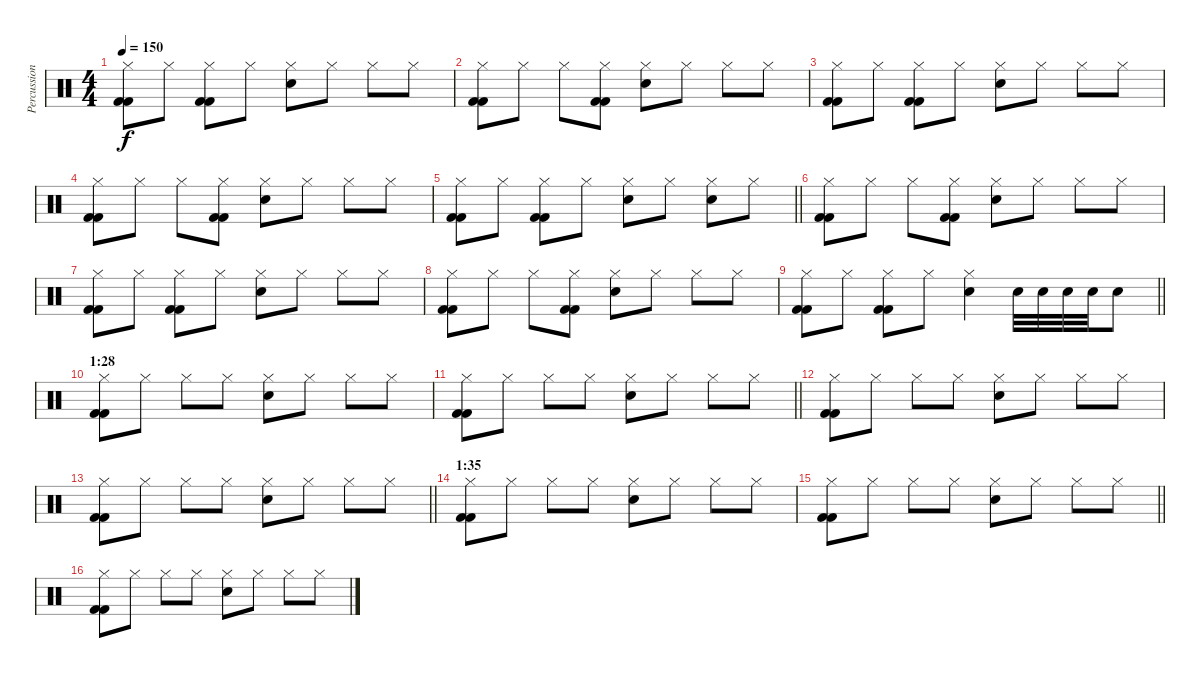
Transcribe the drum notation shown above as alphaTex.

\track ("Percussion" "Percussion") {instrument percussion}
\staff {score}
\articulation defaults
\ts (4 4)
\tempo 150
\clef neutral
\ks c
("Kick (hit) 2" "Kick (hit) 2" "Hi-Hat (closed)").8{dy f} "Hi-Hat (closed)".8 ("Kick (hit) 2" "Kick (hit) 2" "Hi-Hat (closed)").8 "Hi-Hat (closed)".8 ("Electric Snare (hit)" "Hi-Hat (closed)").8 "Hi-Hat (closed)".8 "Hi-Hat (closed)".8 "Hi-Hat (closed)".8 |
("Kick (hit) 2" "Kick (hit) 2" "Hi-Hat (closed)").8 "Hi-Hat (closed)".8 "Hi-Hat (closed)".8 ("Kick (hit) 2" "Kick (hit) 2" "Hi-Hat (closed)").8 ("Electric Snare (hit)" "Hi-Hat (closed)").8 "Hi-Hat (closed)".8 "Hi-Hat (closed)".8 "Hi-Hat (closed)".8 |
("Kick (hit) 2" "Kick (hit) 2" "Hi-Hat (closed)").8 "Hi-Hat (closed)".8 ("Kick (hit) 2" "Kick (hit) 2" "Hi-Hat (closed)").8 "Hi-Hat (closed)".8 ("Electric Snare (hit)" "Hi-Hat (closed)").8 "Hi-Hat (closed)".8 "Hi-Hat (closed)".8 "Hi-Hat (closed)".8 |
("Kick (hit) 2" "Kick (hit) 2" "Hi-Hat (closed)").8 "Hi-Hat (closed)".8 "Hi-Hat (closed)".8 ("Kick (hit) 2" "Kick (hit) 2" "Hi-Hat (closed)").8 ("Electric Snare (hit)" "Hi-Hat (closed)").8 "Hi-Hat (closed)".8 "Hi-Hat (closed)".8 "Hi-Hat (closed)".8 |
\barLineRight lightlight
("Kick (hit) 2" "Kick (hit) 2" "Hi-Hat (closed)").8 "Hi-Hat (closed)".8 ("Kick (hit) 2" "Kick (hit) 2" "Hi-Hat (closed)").8 "Hi-Hat (closed)".8 ("Electric Snare (hit)" "Hi-Hat (closed)").8 "Hi-Hat (closed)".8 ("Electric Snare (hit)" "Hi-Hat (closed)").8 "Hi-Hat (closed)".8 |
("Kick (hit) 2" "Kick (hit) 2" "Hi-Hat (closed)").8 "Hi-Hat (closed)".8 "Hi-Hat (closed)".8 ("Kick (hit) 2" "Kick (hit) 2" "Hi-Hat (closed)").8 ("Electric Snare (hit)" "Hi-Hat (closed)").8 "Hi-Hat (closed)".8 "Hi-Hat (closed)".8 "Hi-Hat (closed)".8 |
("Kick (hit) 2" "Kick (hit) 2" "Hi-Hat (closed)").8 "Hi-Hat (closed)".8 ("Kick (hit) 2" "Kick (hit) 2" "Hi-Hat (closed)").8 "Hi-Hat (closed)".8 ("Electric Snare (hit)" "Hi-Hat (closed)").8 "Hi-Hat (closed)".8 "Hi-Hat (closed)".8 "Hi-Hat (closed)".8 |
("Kick (hit) 2" "Kick (hit) 2" "Hi-Hat (closed)").8 "Hi-Hat (closed)".8 "Hi-Hat (closed)".8 ("Kick (hit) 2" "Kick (hit) 2" "Hi-Hat (closed)").8 ("Electric Snare (hit)" "Hi-Hat (closed)").8 "Hi-Hat (closed)".8 "Hi-Hat (closed)".8 "Hi-Hat (closed)".8 |
\barLineRight lightlight
("Kick (hit) 2" "Kick (hit) 2" "Hi-Hat (closed)").8 "Hi-Hat (closed)".8 ("Kick (hit) 2" "Kick (hit) 2" "Hi-Hat (closed)").8 "Hi-Hat (closed)".8 ("Electric Snare (hit)" "Hi-Hat (closed)").4 "Electric Snare (hit)".32 "Electric Snare (hit)".32 "Electric Snare (hit)".32 "Electric Snare (hit)".32 "Electric Snare (hit)".8 |
\section ("" "1:28")
("Kick (hit) 2" "Kick (hit) 2" "Hi-Hat (closed)").8 "Hi-Hat (closed)".8 "Hi-Hat (closed)".8 "Hi-Hat (closed)".8 ("Electric Snare (hit)" "Hi-Hat (closed)").8 "Hi-Hat (closed)".8 "Hi-Hat (closed)".8 "Hi-Hat (closed)".8 |
\barLineRight lightlight
("Kick (hit) 2" "Kick (hit) 2" "Hi-Hat (closed)").8 "Hi-Hat (closed)".8 "Hi-Hat (closed)".8 "Hi-Hat (closed)".8 ("Electric Snare (hit)" "Hi-Hat (closed)").8 "Hi-Hat (closed)".8 "Hi-Hat (closed)".8 "Hi-Hat (closed)".8 |
("Kick (hit) 2" "Kick (hit) 2" "Hi-Hat (closed)").8 "Hi-Hat (closed)".8 "Hi-Hat (closed)".8 "Hi-Hat (closed)".8 ("Electric Snare (hit)" "Hi-Hat (closed)").8 "Hi-Hat (closed)".8 "Hi-Hat (closed)".8 "Hi-Hat (closed)".8 |
\barLineRight lightlight
("Kick (hit) 2" "Kick (hit) 2" "Hi-Hat (closed)").8 "Hi-Hat (closed)".8 "Hi-Hat (closed)".8 "Hi-Hat (closed)".8 ("Electric Snare (hit)" "Hi-Hat (closed)").8 "Hi-Hat (closed)".8 "Hi-Hat (closed)".8 "Hi-Hat (closed)".8 |
\section ("" "1:35")
("Kick (hit) 2" "Kick (hit) 2" "Hi-Hat (closed)").8 "Hi-Hat (closed)".8 "Hi-Hat (closed)".8 "Hi-Hat (closed)".8 ("Electric Snare (hit)" "Hi-Hat (closed)").8 "Hi-Hat (closed)".8 "Hi-Hat (closed)".8 "Hi-Hat (closed)".8 |
\barLineRight lightlight
("Kick (hit) 2" "Kick (hit) 2" "Hi-Hat (closed)").8 "Hi-Hat (closed)".8 "Hi-Hat (closed)".8 "Hi-Hat (closed)".8 ("Electric Snare (hit)" "Hi-Hat (closed)").8 "Hi-Hat (closed)".8 "Hi-Hat (closed)".8 "Hi-Hat (closed)".8 |
("Kick (hit) 2" "Kick (hit) 2" "Hi-Hat (closed)").8 "Hi-Hat (closed)".8 "Hi-Hat (closed)".8 "Hi-Hat (closed)".8 ("Electric Snare (hit)" "Hi-Hat (closed)").8 "Hi-Hat (closed)".8 "Hi-Hat (closed)".8 "Hi-Hat (closed)".8
